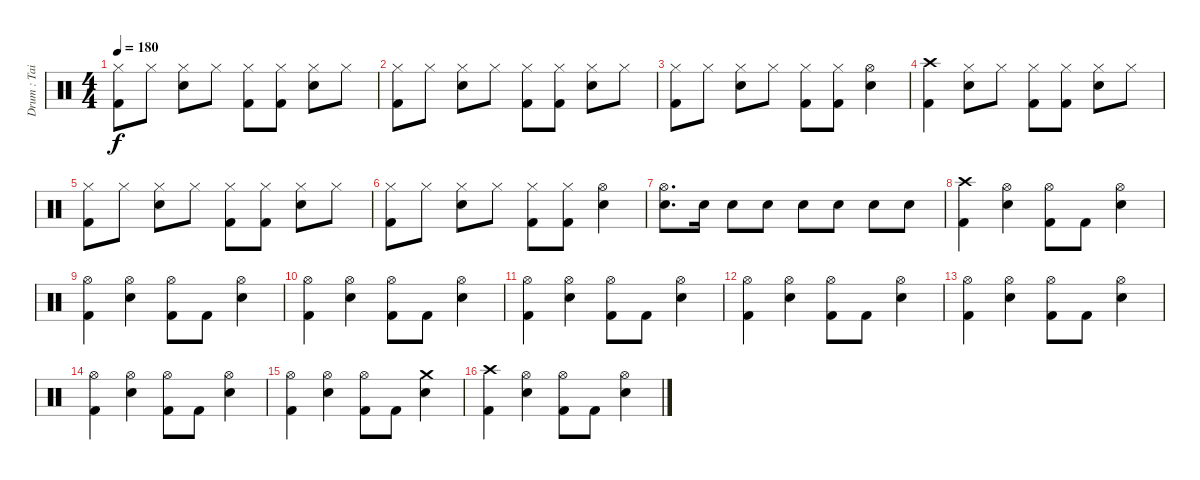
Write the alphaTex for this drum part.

\track ("Drum : Tainaka Ritsu" "Drum : Tai") {instrument percussion}
\staff {score}
\articulation defaults
\ts (4 4)
\tempo 180
\clef neutral
\ks c
("Hi-Hat (closed)" "Kick (hit) 2").8{dy f} "Hi-Hat (closed)".8 ("Hi-Hat (closed)" "Snare (hit) 2").8 "Hi-Hat (closed)".8 ("Hi-Hat (closed)" "Kick (hit) 2").8 ("Hi-Hat (closed)" "Kick (hit) 2").8 ("Hi-Hat (closed)" "Snare (hit) 2").8 "Hi-Hat (closed)".8 |
("Hi-Hat (closed)" "Kick (hit) 2").8 "Hi-Hat (closed)".8 ("Hi-Hat (closed)" "Snare (hit) 2").8 "Hi-Hat (closed)".8 ("Hi-Hat (closed)" "Kick (hit) 2").8 ("Hi-Hat (closed)" "Kick (hit) 2").8 ("Hi-Hat (closed)" "Snare (hit) 2").8 "Hi-Hat (closed)".8 |
("Hi-Hat (closed)" "Kick (hit) 2").8 "Hi-Hat (closed)".8 ("Hi-Hat (closed)" "Snare (hit) 2").8 "Hi-Hat (closed)".8 ("Hi-Hat (closed)" "Kick (hit) 2").8 ("Hi-Hat (closed)" "Kick (hit) 2").8 ("Hi-Hat (open)" "Snare (hit) 2").4 |
("Crash high (hit)" "Kick (hit) 2").4 ("Hi-Hat (closed)" "Snare (hit) 2").8 "Hi-Hat (closed)".8 ("Hi-Hat (closed)" "Kick (hit) 2").8 ("Hi-Hat (closed)" "Kick (hit) 2").8 ("Hi-Hat (closed)" "Snare (hit) 2").8 "Hi-Hat (closed)".8 |
("Hi-Hat (closed)" "Kick (hit) 2").8 "Hi-Hat (closed)".8 ("Hi-Hat (closed)" "Snare (hit) 2").8 "Hi-Hat (closed)".8 ("Hi-Hat (closed)" "Kick (hit) 2").8 ("Hi-Hat (closed)" "Kick (hit) 2").8 ("Hi-Hat (closed)" "Snare (hit) 2").8 "Hi-Hat (closed)".8 |
("Hi-Hat (closed)" "Kick (hit) 2").8 "Hi-Hat (closed)".8 ("Hi-Hat (closed)" "Snare (hit) 2").8 "Hi-Hat (closed)".8 ("Hi-Hat (closed)" "Kick (hit) 2").8 ("Hi-Hat (closed)" "Kick (hit) 2").8 ("Hi-Hat (open)" "Snare (hit) 2").4 |
("Hi-Hat (open)" "Snare (hit) 2").8{d} "Snare (hit) 2".16 "Snare (hit) 2".8 "Snare (hit) 2".8 "Snare (hit) 2".8 "Snare (hit) 2".8 "Snare (hit) 2".8 "Snare (hit) 2".8 |
("Crash high (hit)" "Kick (hit) 2").4 ("Hi-Hat (open)" "Snare (hit) 2").4 ("Hi-Hat (open)" "Kick (hit) 2").8 "Kick (hit) 2".8 ("Hi-Hat (open)" "Snare (hit) 2").4 |
("Hi-Hat (open)" "Kick (hit) 2").4 ("Hi-Hat (open)" "Snare (hit) 2").4 ("Hi-Hat (open)" "Kick (hit) 2").8 "Kick (hit) 2".8 ("Hi-Hat (open)" "Snare (hit) 2").4 |
("Hi-Hat (open)" "Kick (hit) 2").4 ("Hi-Hat (open)" "Snare (hit) 2").4 ("Hi-Hat (open)" "Kick (hit) 2").8 "Kick (hit) 2".8 ("Hi-Hat (open)" "Snare (hit) 2").4 |
("Hi-Hat (open)" "Kick (hit) 2").4 ("Hi-Hat (open)" "Snare (hit) 2").4 ("Hi-Hat (open)" "Kick (hit) 2").8 "Kick (hit) 2".8 ("Hi-Hat (open)" "Snare (hit) 2").4 |
("Hi-Hat (open)" "Kick (hit) 2").4 ("Hi-Hat (open)" "Snare (hit) 2").4 ("Hi-Hat (open)" "Kick (hit) 2").8 "Kick (hit) 2".8 ("Hi-Hat (open)" "Snare (hit) 2").4 |
("Hi-Hat (open)" "Kick (hit) 2").4 ("Hi-Hat (open)" "Snare (hit) 2").4 ("Hi-Hat (open)" "Kick (hit) 2").8 "Kick (hit) 2".8 ("Hi-Hat (open)" "Snare (hit) 2").4 |
("Hi-Hat (open)" "Kick (hit) 2").4 ("Hi-Hat (open)" "Snare (hit) 2").4 ("Hi-Hat (open)" "Kick (hit) 2").8 "Kick (hit) 2".8 ("Hi-Hat (open)" "Snare (hit) 2").4 |
("Hi-Hat (open)" "Kick (hit) 2").4 ("Hi-Hat (open)" "Snare (hit) 2").4 ("Hi-Hat (open)" "Kick (hit) 2").8 "Kick (hit) 2".8 ("Crash medium (hit)" "Snare (hit) 2").4 |
("Crash high (hit)" "Kick (hit) 2").4 ("Hi-Hat (open)" "Snare (hit) 2").4 ("Hi-Hat (open)" "Kick (hit) 2").8 "Kick (hit) 2".8 ("Hi-Hat (open)" "Snare (hit) 2").4
